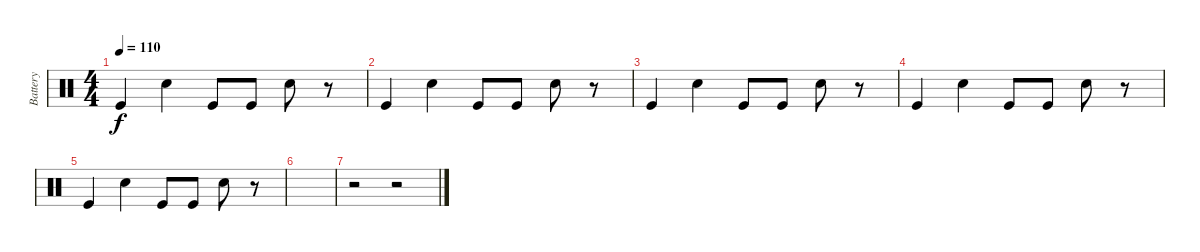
\track ("Battery" "Battery") {instrument percussion}
\staff {score}
\articulation defaults
\ts (4 4)
\tempo 110
\clef neutral
\ks c "Kick (hit)".4{dy f} "Snare (hit) 2".4 "Kick (hit)".8 "Kick (hit)".8 "Snare (hit) 2".8
r.8 |
"Kick (hit)".4 "Snare (hit) 2".4 "Kick (hit)".8 "Kick (hit)".8 "Snare (hit) 2".8 r.8 |
"Kick (hit)".4 "Snare (hit) 2".4 "Kick (hit)".8 "Kick (hit)".8 "Snare (hit) 2".8 r.8 |
"Kick (hit)".4 "Snare (hit) 2".4 "Kick (hit)".8 "Kick (hit)".8 "Snare (hit) 2".8 r.8 |
"Kick (hit)".4 "Snare (hit) 2".4 "Kick (hit)".8 "Kick (hit)".8 "Snare (hit) 2".8 r.8 |
|
r.2 r.2
